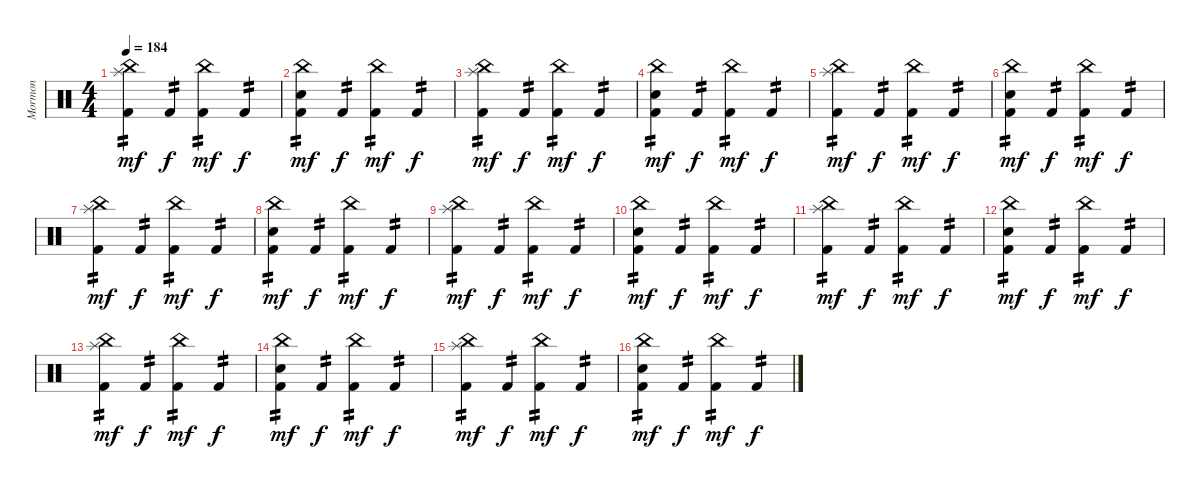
\track ("Mormon" "Mormon") {solo instrument percussion}
\staff {score}
\articulation defaults
\ts (4 4)
\tempo 184
\clef neutral
\ks c
("China (hit)" "Splash (hit)" "Kick (hit) 2").4{tp 2 dy mf} "Kick (hit) 2".4{tp 2 dy f} ("China (hit)" "Kick (hit) 2").4{tp 2 dy mf} "Kick (hit) 2".4{tp 2 dy f} |
("China (hit)" "Snare (hit) 2" "Kick (hit) 2").4{tp 2 dy mf} "Kick (hit) 2".4{tp 2 dy f} ("China (hit)" "Kick (hit) 2").4{tp 2 dy mf} "Kick (hit) 2".4{tp 2 dy f} |
("China (hit)" "Splash (hit)" "Kick (hit) 2").4{tp 2 dy mf} "Kick (hit) 2".4{tp 2 dy f} ("China (hit)" "Kick (hit) 2").4{tp 2 dy mf} "Kick (hit) 2".4{tp 2 dy f} |
("China (hit)" "Snare (hit) 2" "Kick (hit) 2").4{tp 2 dy mf} "Kick (hit) 2".4{tp 2 dy f} ("China (hit)" "Kick (hit) 2").4{tp 2 dy mf} "Kick (hit) 2".4{tp 2 dy f} |
("China (hit)" "Splash (hit)" "Kick (hit) 2").4{tp 2 dy mf} "Kick (hit) 2".4{tp 2 dy f} ("China (hit)" "Kick (hit) 2").4{tp 2 dy mf} "Kick (hit) 2".4{tp 2 dy f} |
("China (hit)" "Snare (hit) 2" "Kick (hit) 2").4{tp 2 dy mf} "Kick (hit) 2".4{tp 2 dy f} ("China (hit)" "Kick (hit) 2").4{tp 2 dy mf} "Kick (hit) 2".4{tp 2 dy f} |
("China (hit)" "Splash (hit)" "Kick (hit) 2").4{tp 2 dy mf} "Kick (hit) 2".4{tp 2 dy f} ("China (hit)" "Kick (hit) 2").4{tp 2 dy mf} "Kick (hit) 2".4{tp 2 dy f} |
("China (hit)" "Snare (hit) 2" "Kick (hit) 2").4{tp 2 dy mf} "Kick (hit) 2".4{tp 2 dy f} ("China (hit)" "Kick (hit) 2").4{tp 2 dy mf} "Kick (hit) 2".4{tp 2 dy f} |
("China (hit)" "Splash (hit)" "Kick (hit) 2").4{tp 2 dy mf} "Kick (hit) 2".4{tp 2 dy f} ("China (hit)" "Kick (hit) 2").4{tp 2 dy mf} "Kick (hit) 2".4{tp 2 dy f} |
("China (hit)" "Snare (hit) 2" "Kick (hit) 2").4{tp 2 dy mf} "Kick (hit) 2".4{tp 2 dy f} ("China (hit)" "Kick (hit) 2").4{tp 2 dy mf} "Kick (hit) 2".4{tp 2 dy f} |
("China (hit)" "Splash (hit)" "Kick (hit) 2").4{tp 2 dy mf} "Kick (hit) 2".4{tp 2 dy f} ("China (hit)" "Kick (hit) 2").4{tp 2 dy mf} "Kick (hit) 2".4{tp 2 dy f} |
("China (hit)" "Snare (hit) 2" "Kick (hit) 2").4{tp 2 dy mf} "Kick (hit) 2".4{tp 2 dy f} ("China (hit)" "Kick (hit) 2").4{tp 2 dy mf} "Kick (hit) 2".4{tp 2 dy f} |
("China (hit)" "Splash (hit)" "Kick (hit) 2").4{tp 2 dy mf} "Kick (hit) 2".4{tp 2 dy f} ("China (hit)" "Kick (hit) 2").4{tp 2 dy mf} "Kick (hit) 2".4{tp 2 dy f} |
("China (hit)" "Snare (hit) 2" "Kick (hit) 2").4{tp 2 dy mf} "Kick (hit) 2".4{tp 2 dy f} ("China (hit)" "Kick (hit) 2").4{tp 2 dy mf} "Kick (hit) 2".4{tp 2 dy f} |
("China (hit)" "Splash (hit)" "Kick (hit) 2").4{tp 2 dy mf} "Kick (hit) 2".4{tp 2 dy f} ("China (hit)" "Kick (hit) 2").4{tp 2 dy mf} "Kick (hit) 2".4{tp 2 dy f} |
("China (hit)" "Snare (hit) 2" "Kick (hit) 2").4{tp 2 dy mf} "Kick (hit) 2".4{tp 2 dy f} ("China (hit)" "Kick (hit) 2").4{tp 2 dy mf} "Kick (hit) 2".4{tp 2 dy f}
